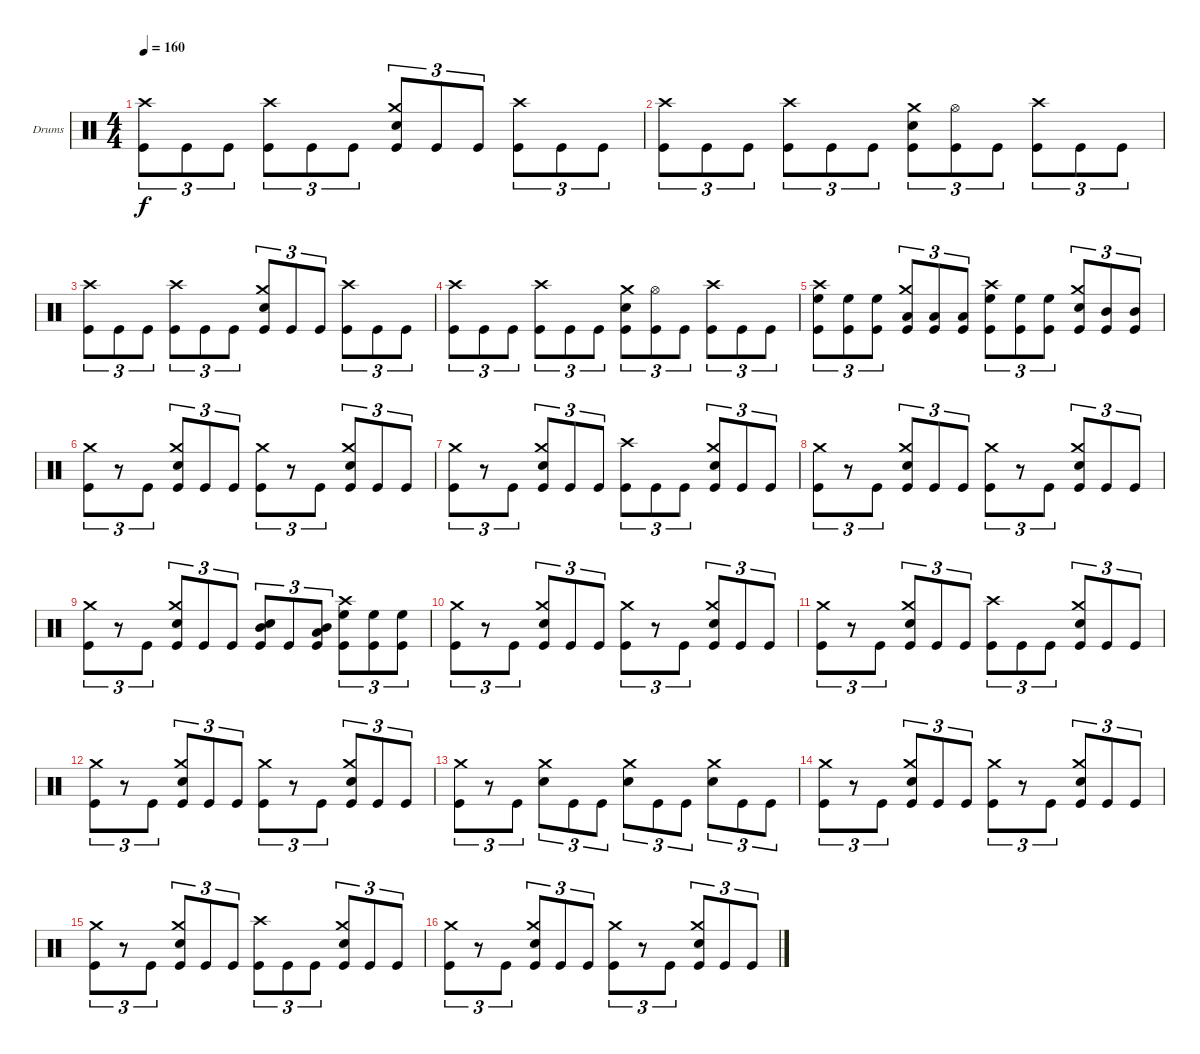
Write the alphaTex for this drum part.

\defaultSystemsLayout 4
\bracketExtendMode groupsimilarinstruments
\firstSystemTrackNameOrientation horizontal
\otherSystemsTrackNameOrientation horizontal
\track ("Drumkit" "Drums") {instrument percussion}
\staff {score}
\articulation defaults
\ts (4 4)
\tempo 160
\clef neutral
\ks c
("Crash high (hit)" "Kick (hit)").8{tu (3 2) dy f} "Kick (hit)".8{tu (3 2)} "Kick (hit)".8{tu (3 2)} ("Crash high (hit)" "Kick (hit)").8{tu (3 2)} "Kick (hit)".8{tu (3 2)} "Kick (hit)".8{tu (3 2)} ("Crash medium (hit)" "Snare (hit) 2" "Kick (hit)").8{tu (3 2)} "Kick (hit)".8{tu (3 2)} "Kick (hit)".8{tu (3 2)} ("Crash high (hit)" "Kick (hit)").8{tu (3 2)} "Kick (hit)".8{tu (3 2)} "Kick (hit)".8{tu (3 2)} |
("Crash high (hit)" "Kick (hit)").8{tu (3 2)} "Kick (hit)".8{tu (3 2)} "Kick (hit)".8{tu (3 2)} ("Crash high (hit)" "Kick (hit)").8{tu (3 2)} "Kick (hit)".8{tu (3 2)} "Kick (hit)".8{tu (3 2)} ("Crash medium (hit)" "Snare (hit) 2" "Kick (hit)").8{tu (3 2)} ("Kick (hit)" "Hi-Hat (open)").8{tu (3 2)} "Kick (hit)".8{tu (3 2)} ("Crash high (hit)" "Kick (hit)").8{tu (3 2)} "Kick (hit)".8{tu (3 2)} "Kick (hit)".8{tu (3 2)} |
("Crash high (hit)" "Kick (hit)").8{tu (3 2)} "Kick (hit)".8{tu (3 2)} "Kick (hit)".8{tu (3 2)} ("Crash high (hit)" "Kick (hit)").8{tu (3 2)} "Kick (hit)".8{tu (3 2)} "Kick (hit)".8{tu (3 2)} ("Crash medium (hit)" "Snare (hit) 2" "Kick (hit)").8{tu (3 2)} "Kick (hit)".8{tu (3 2)} "Kick (hit)".8{tu (3 2)} ("Crash high (hit)" "Kick (hit)").8{tu (3 2)} "Kick (hit)".8{tu (3 2)} "Kick (hit)".8{tu (3 2)} |
("Crash high (hit)" "Kick (hit)").8{tu (3 2)} "Kick (hit)".8{tu (3 2)} "Kick (hit)".8{tu (3 2)} ("Crash high (hit)" "Kick (hit)").8{tu (3 2)} "Kick (hit)".8{tu (3 2)} "Kick (hit)".8{tu (3 2)} ("Crash medium (hit)" "Snare (hit) 2" "Kick (hit)").8{tu (3 2)} ("Kick (hit)" "Hi-Hat (open)").8{tu (3 2)} "Kick (hit)".8{tu (3 2)} ("Crash high (hit)" "Kick (hit)").8{tu (3 2)} "Kick (hit)".8{tu (3 2)} "Kick (hit)".8{tu (3 2)} |
("Crash high (hit)" "Kick (hit)" "High Floor Tom (hit)").8{tu (3 2)} ("Kick (hit)" "High Floor Tom (hit)").8{tu (3 2)} ("Kick (hit)" "High Floor Tom (hit)").8{tu (3 2)} ("Crash medium (hit)" "Kick (hit)" "Low Tom (hit)").8{tu (3 2)} ("Kick (hit)" "Low Tom (hit)").8{tu (3 2)} ("Kick (hit)" "Low Tom (hit)").8{tu (3 2)} ("Crash high (hit)" "Kick (hit)" "High Floor Tom (hit)").8{tu (3 2)} ("Kick (hit)" "High Floor Tom (hit)").8{tu (3 2)} ("Kick (hit)" "High Floor Tom (hit)").8{tu (3 2)} ("Crash medium (hit)" "Snare (hit) 2" "Kick (hit)").8{tu (3 2)} ("Kick (hit)" "Mid Tom (hit)").8{tu (3 2)} ("Kick (hit)" "Mid Tom (hit)").8{tu (3 2)} |
("Crash medium (hit)" "Kick (hit)").8{tu (3 2)} r.8{tu (3 2)} "Kick (hit)".8{tu (3 2)} ("Crash medium (hit)" "Snare (hit) 2" "Kick (hit)").8{tu (3 2)} "Kick (hit)".8{tu (3 2)} "Kick (hit)".8{tu (3 2)} ("Crash medium (hit)" "Kick (hit)").8{tu (3 2)} r.8{tu (3 2)} "Kick (hit)".8{tu (3 2)} ("Crash medium (hit)" "Snare (hit) 2" "Kick (hit)").8{tu (3 2)} "Kick (hit)".8{tu (3 2)} "Kick (hit)".8{tu (3 2)} |
("Crash medium (hit)" "Kick (hit)").8{tu (3 2)} r.8{tu (3 2)} "Kick (hit)".8{tu (3 2)} ("Crash medium (hit)" "Snare (hit) 2" "Kick (hit)").8{tu (3 2)} "Kick (hit)".8{tu (3 2)} "Kick (hit)".8{tu (3 2)} ("Crash high (hit)" "Kick (hit)").8{tu (3 2)} "Kick (hit)".8{tu (3 2)} "Kick (hit)".8{tu (3 2)} ("Crash medium (hit)" "Snare (hit) 2" "Kick (hit)").8{tu (3 2)} "Kick (hit)".8{tu (3 2)} "Kick (hit)".8{tu (3 2)} |
("Crash medium (hit)" "Kick (hit)").8{tu (3 2)} r.8{tu (3 2)} "Kick (hit)".8{tu (3 2)} ("Crash medium (hit)" "Snare (hit) 2" "Kick (hit)").8{tu (3 2)} "Kick (hit)".8{tu (3 2)} "Kick (hit)".8{tu (3 2)} ("Crash medium (hit)" "Kick (hit)").8{tu (3 2)} r.8{tu (3 2)} "Kick (hit)".8{tu (3 2)} ("Crash medium (hit)" "Snare (hit) 2" "Kick (hit)").8{tu (3 2)} "Kick (hit)".8{tu (3 2)} "Kick (hit)".8{tu (3 2)} |
("Crash medium (hit)" "Kick (hit)").8{tu (3 2)} r.8{tu (3 2)} "Kick (hit)".8{tu (3 2)} ("Crash medium (hit)" "Snare (hit) 2" "Kick (hit)").8{tu (3 2)} "Kick (hit)".8{tu (3 2)} "Kick (hit)".8{tu (3 2)} ("Mid Tom (hit)" "Snare (hit) 2" "Kick (hit)").8{tu (3 2)} "Kick (hit)".8{tu (3 2)} ("Mid Tom (hit)" "Low Tom (hit)" "Kick (hit)").8{tu (3 2)} ("Crash high (hit)" "Kick (hit)" "High Floor Tom (hit)").8{tu (3 2)} ("Kick (hit)" "High Floor Tom (hit)").8{tu (3 2)} ("Kick (hit)" "High Floor Tom (hit)").8{tu (3 2)} |
("Crash medium (hit)" "Kick (hit)").8{tu (3 2)} r.8{tu (3 2)} "Kick (hit)".8{tu (3 2)} ("Crash medium (hit)" "Snare (hit) 2" "Kick (hit)").8{tu (3 2)} "Kick (hit)".8{tu (3 2)} "Kick (hit)".8{tu (3 2)} ("Crash medium (hit)" "Kick (hit)").8{tu (3 2)} r.8{tu (3 2)} "Kick (hit)".8{tu (3 2)} ("Crash medium (hit)" "Snare (hit) 2" "Kick (hit)").8{tu (3 2)} "Kick (hit)".8{tu (3 2)} "Kick (hit)".8{tu (3 2)} |
("Crash medium (hit)" "Kick (hit)").8{tu (3 2)} r.8{tu (3 2)} "Kick (hit)".8{tu (3 2)} ("Crash medium (hit)" "Snare (hit) 2" "Kick (hit)").8{tu (3 2)} "Kick (hit)".8{tu (3 2)} "Kick (hit)".8{tu (3 2)} ("Crash high (hit)" "Kick (hit)").8{tu (3 2)} "Kick (hit)".8{tu (3 2)} "Kick (hit)".8{tu (3 2)} ("Crash medium (hit)" "Snare (hit) 2" "Kick (hit)").8{tu (3 2)} "Kick (hit)".8{tu (3 2)} "Kick (hit)".8{tu (3 2)} |
("Crash medium (hit)" "Kick (hit)").8{tu (3 2)} r.8{tu (3 2)} "Kick (hit)".8{tu (3 2)} ("Crash medium (hit)" "Snare (hit) 2" "Kick (hit)").8{tu (3 2)} "Kick (hit)".8{tu (3 2)} "Kick (hit)".8{tu (3 2)} ("Crash medium (hit)" "Kick (hit)").8{tu (3 2)} r.8{tu (3 2)} "Kick (hit)".8{tu (3 2)} ("Crash medium (hit)" "Snare (hit) 2" "Kick (hit)").8{tu (3 2)} "Kick (hit)".8{tu (3 2)} "Kick (hit)".8{tu (3 2)} |
("Crash medium (hit)" "Kick (hit)").8{tu (3 2)} r.8{tu (3 2)} "Kick (hit)".8{tu (3 2)} ("Crash medium (hit)" "Snare (hit) 2").8{tu (3 2)} "Kick (hit)".8{tu (3 2)} "Kick (hit)".8{tu (3 2)} ("Crash medium (hit)" "Snare (hit) 2").8{tu (3 2)} "Kick (hit)".8{tu (3 2)} "Kick (hit)".8{tu (3 2)} ("Crash medium (hit)" "Snare (hit) 2").8{tu (3 2)} "Kick (hit)".8{tu (3 2)} "Kick (hit)".8{tu (3 2)} |
("Crash medium (hit)" "Kick (hit)").8{tu (3 2)} r.8{tu (3 2)} "Kick (hit)".8{tu (3 2)} ("Crash medium (hit)" "Snare (hit) 2" "Kick (hit)").8{tu (3 2)} "Kick (hit)".8{tu (3 2)} "Kick (hit)".8{tu (3 2)} ("Crash medium (hit)" "Kick (hit)").8{tu (3 2)} r.8{tu (3 2)} "Kick (hit)".8{tu (3 2)} ("Crash medium (hit)" "Snare (hit) 2" "Kick (hit)").8{tu (3 2)} "Kick (hit)".8{tu (3 2)} "Kick (hit)".8{tu (3 2)} |
("Crash medium (hit)" "Kick (hit)").8{tu (3 2)} r.8{tu (3 2)} "Kick (hit)".8{tu (3 2)} ("Crash medium (hit)" "Snare (hit) 2" "Kick (hit)").8{tu (3 2)} "Kick (hit)".8{tu (3 2)} "Kick (hit)".8{tu (3 2)} ("Crash high (hit)" "Kick (hit)").8{tu (3 2)} "Kick (hit)".8{tu (3 2)} "Kick (hit)".8{tu (3 2)} ("Crash medium (hit)" "Snare (hit) 2" "Kick (hit)").8{tu (3 2)} "Kick (hit)".8{tu (3 2)} "Kick (hit)".8{tu (3 2)} |
("Crash medium (hit)" "Kick (hit)").8{tu (3 2)} r.8{tu (3 2)} "Kick (hit)".8{tu (3 2)} ("Crash medium (hit)" "Snare (hit) 2" "Kick (hit)").8{tu (3 2)} "Kick (hit)".8{tu (3 2)} "Kick (hit)".8{tu (3 2)} ("Crash medium (hit)" "Kick (hit)").8{tu (3 2)} r.8{tu (3 2)} "Kick (hit)".8{tu (3 2)} ("Crash medium (hit)" "Snare (hit) 2" "Kick (hit)").8{tu (3 2)} "Kick (hit)".8{tu (3 2)} "Kick (hit)".8{tu (3 2)}
